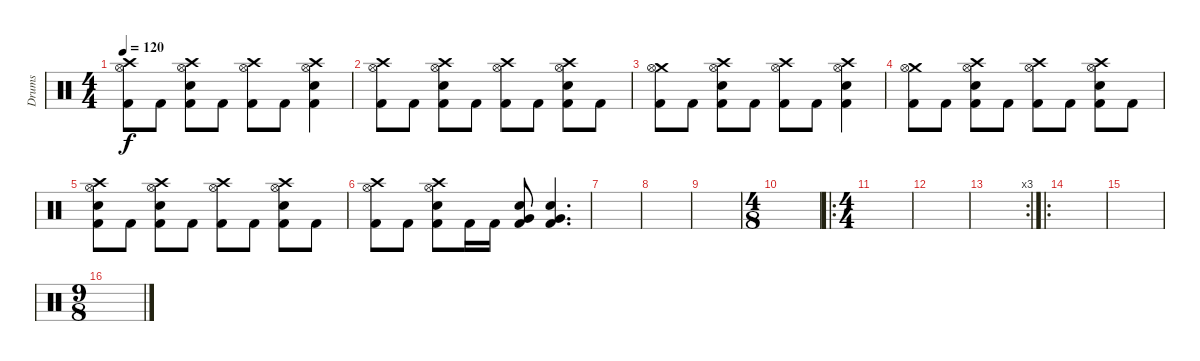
\track ("Drums" "Drums") {instrument percussion}
\staff {score}
\articulation defaults
\ts (4 4)
\tempo 120
\clef neutral
\ks c
("Crash high (hit)" "Hi-Hat (open)" "Kick (hit) 2").8{dy f} "Kick (hit) 2".8 ("Crash high (hit)" "Hi-Hat (open)" "Electric Snare (hit)" "Kick (hit) 2").8 "Kick (hit) 2".8 ("Crash high (hit)" "Hi-Hat (open)" "Kick (hit) 2").8 "Kick (hit) 2".8 ("Crash high (hit)" "Hi-Hat (open)" "Electric Snare (hit)" "Kick (hit) 2").4 |
("Crash high (hit)" "Hi-Hat (open)" "Kick (hit) 2").8 "Kick (hit) 2".8 ("Crash high (hit)" "Hi-Hat (open)" "Electric Snare (hit)" "Kick (hit) 2").8 "Kick (hit) 2".8 ("Crash high (hit)" "Hi-Hat (open)" "Kick (hit) 2").8 "Kick (hit) 2".8 ("Crash high (hit)" "Hi-Hat (open)" "Electric Snare (hit)" "Kick (hit) 2").8 "Kick (hit) 2".8 |
("Crash medium (hit)" "Hi-Hat (open)" "Kick (hit) 2").8 "Kick (hit) 2".8 ("Crash high (hit)" "Hi-Hat (open)" "Electric Snare (hit)" "Kick (hit) 2").8 "Kick (hit) 2".8 ("Crash high (hit)" "Hi-Hat (open)" "Kick (hit) 2").8 "Kick (hit) 2".8 ("Crash high (hit)" "Hi-Hat (open)" "Electric Snare (hit)" "Kick (hit) 2").4 |
("Crash medium (hit)" "Hi-Hat (open)" "Kick (hit) 2").8 "Kick (hit) 2".8 ("Crash high (hit)" "Hi-Hat (open)" "Electric Snare (hit)" "Kick (hit) 2").8 "Kick (hit) 2".8 ("Crash high (hit)" "Hi-Hat (open)" "Kick (hit) 2").8 "Kick (hit) 2".8 ("Crash high (hit)" "Hi-Hat (open)" "Electric Snare (hit)" "Kick (hit) 2").8 "Kick (hit) 2".8 |
("Crash high (hit)" "Hi-Hat (open)" "Electric Snare (hit)" "Kick (hit) 2").8 "Kick (hit) 2".8 ("Crash high (hit)" "Hi-Hat (open)" "Electric Snare (hit)" "Kick (hit) 2").8 "Kick (hit) 2".8 ("Crash high (hit)" "Hi-Hat (open)" "Kick (hit) 2").8 "Kick (hit) 2".8 ("Crash high (hit)" "Hi-Hat (open)" "Electric Snare (hit)" "Kick (hit) 2").8 "Kick (hit) 2".8 |
("Crash high (hit)" "Hi-Hat (open)" "Kick (hit) 2").8 "Kick (hit) 2".8 ("Crash high (hit)" "Hi-Hat (open)" "Electric Snare (hit)" "Kick (hit) 2").8 "Kick (hit) 2".16 "Kick (hit) 2".16 ("Very Low Tom (hit)" "Electric Snare (hit)" "Kick (hit) 2").8 ("Very Low Tom (hit)" "Electric Snare (hit)" "Kick (hit) 2").4{d} |
|
|
|
\ts (4 8)
|
\ro
\ts (4 4)
|
|
\rc 3
|
\ro
|
|
\ts (9 8)
